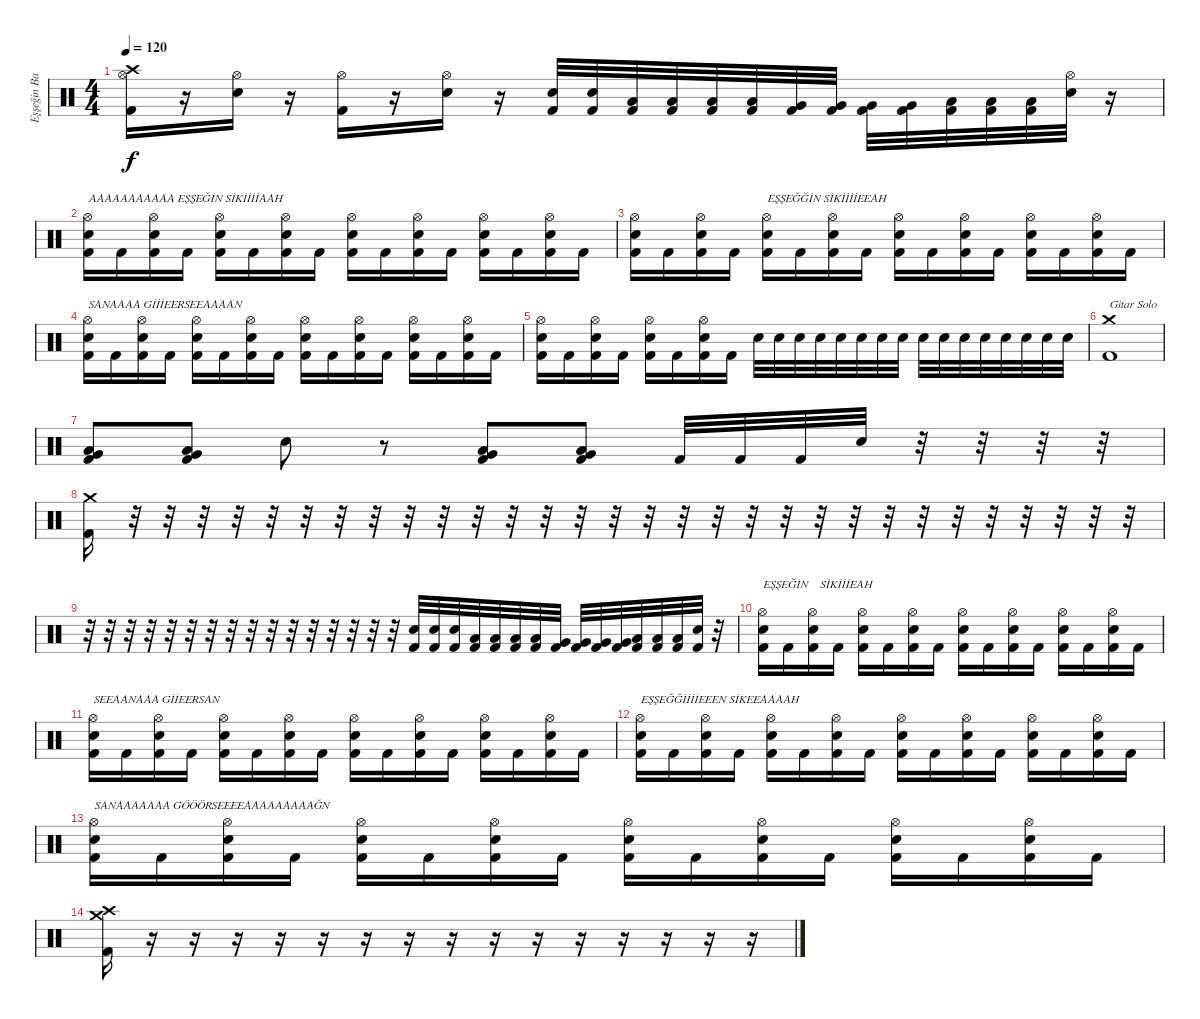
\track ("Eşşeğin Baterisi" "Eşşeğin Ba") {instrument percussion}
\staff {score}
\articulation defaults
\ts (4 4)
\tempo 120
\clef neutral
\ks c
("Crash high (hit)" "Hi-Hat (open)" "Kick (hit) 2").16{dy f} r.16 ("Hi-Hat (open)" "Electric Snare (hit)").16 r.16 ("Hi-Hat (open)" "Kick (hit) 2").16 r.16 ("Hi-Hat (open)" "Electric Snare (hit)").16 r.16 ("Electric Snare (hit)" "Kick (hit) 2").32 ("Electric Snare (hit)" "Kick (hit) 2").32 ("Low Tom (hit)" "Kick (hit) 2").32 ("Low Tom (hit)" "Kick (hit) 2").32 ("Low Tom (hit)" "Kick (hit) 2").32 ("Low Tom (hit)" "Kick (hit) 2").32 ("Very Low Tom (hit)" "Kick (hit) 2").32 ("Very Low Tom (hit)" "Kick (hit) 2").32 ("Very Low Tom (hit)" "Kick (hit) 2").32 ("Very Low Tom (hit)" "Kick (hit) 2").32 ("Low Floor Tom (hit)" "Kick (hit) 2").32 ("Low Floor Tom (hit)" "Kick (hit) 2").32 ("Low Floor Tom (hit)" "Kick (hit) 2").32 ("Electric Snare (hit)" "Hi-Hat (open)").32 r.16 |
("Hi-Hat (open)" "Electric Snare (hit)" "Kick (hit) 2").16{txt "AAAAAAAAAAA EŞŞEĞİN SİKİİİİAAH"} "Kick (hit) 2".16 ("Hi-Hat (open)" "Electric Snare (hit)" "Kick (hit) 2").16 "Kick (hit) 2".16 ("Hi-Hat (open)" "Electric Snare (hit)" "Kick (hit) 2").16 "Kick (hit) 2".16 ("Hi-Hat (open)" "Electric Snare (hit)" "Kick (hit) 2").16 "Kick (hit) 2".16 ("Hi-Hat (open)" "Electric Snare (hit)" "Kick (hit) 2").16 "Kick (hit) 2".16 ("Hi-Hat (open)" "Electric Snare (hit)" "Kick (hit) 2").16 "Kick (hit) 2".16 ("Hi-Hat (open)" "Electric Snare (hit)" "Kick (hit) 2").16 "Kick (hit) 2".16 ("Hi-Hat (open)" "Electric Snare (hit)" "Kick (hit) 2").16 "Kick (hit) 2".16 |
("Hi-Hat (open)" "Electric Snare (hit)" "Kick (hit) 2").16 "Kick (hit) 2".16 ("Hi-Hat (open)" "Electric Snare (hit)" "Kick (hit) 2").16 "Kick (hit) 2".16 ("Hi-Hat (open)" "Electric Snare (hit)" "Kick (hit) 2").16{txt "EŞŞEĞĞİN SİKİİİİEEAH"} "Kick (hit) 2".16 ("Hi-Hat (open)" "Electric Snare (hit)" "Kick (hit) 2").16 "Kick (hit) 2".16 ("Hi-Hat (open)" "Electric Snare (hit)" "Kick (hit) 2").16 "Kick (hit) 2".16 ("Hi-Hat (open)" "Electric Snare (hit)" "Kick (hit) 2").16 "Kick (hit) 2".16 ("Hi-Hat (open)" "Electric Snare (hit)" "Kick (hit) 2").16 "Kick (hit) 2".16 ("Hi-Hat (open)" "Electric Snare (hit)" "Kick (hit) 2").16 "Kick (hit) 2".16 |
("Hi-Hat (open)" "Electric Snare (hit)" "Kick (hit) 2").16{txt "SANAAAA GİİİEERSEEAAAAN"} "Kick (hit) 2".16 ("Hi-Hat (open)" "Electric Snare (hit)" "Kick (hit) 2").16 "Kick (hit) 2".16 ("Hi-Hat (open)" "Electric Snare (hit)" "Kick (hit) 2").16 "Kick (hit) 2".16 ("Hi-Hat (open)" "Electric Snare (hit)" "Kick (hit) 2").16 "Kick (hit) 2".16 ("Hi-Hat (open)" "Electric Snare (hit)" "Kick (hit) 2").16 "Kick (hit) 2".16 ("Hi-Hat (open)" "Electric Snare (hit)" "Kick (hit) 2").16 "Kick (hit) 2".16 ("Hi-Hat (open)" "Electric Snare (hit)" "Kick (hit) 2").16 "Kick (hit) 2".16 ("Hi-Hat (open)" "Electric Snare (hit)" "Kick (hit) 2").16 "Kick (hit) 2".16 |
("Hi-Hat (open)" "Electric Snare (hit)" "Kick (hit) 2").16 "Kick (hit) 2".16 ("Hi-Hat (open)" "Electric Snare (hit)" "Kick (hit) 2").16 "Kick (hit) 2".16 ("Hi-Hat (open)" "Electric Snare (hit)" "Kick (hit) 2").16 "Kick (hit) 2".16 ("Hi-Hat (open)" "Electric Snare (hit)" "Kick (hit) 2").16 "Kick (hit) 2".16 "Electric Snare (hit)".32 "Electric Snare (hit)".32 "Electric Snare (hit)".32 "Electric Snare (hit)".32 "Electric Snare (hit)".32 "Electric Snare (hit)".32 "Electric Snare (hit)".32 "Electric Snare (hit)".32 "Electric Snare (hit)".32 "Electric Snare (hit)".32 "Electric Snare (hit)".32 "Electric Snare (hit)".32 "Electric Snare (hit)".32 "Electric Snare (hit)".32 "Electric Snare (hit)".32 "Electric Snare (hit)".32 |
("Crash medium (hit)" "Kick (hit) 2").1{txt "Gitar Solo"} |
("Low Floor Tom (hit)" "Very Low Tom (hit)" "Kick (hit) 2").8 ("Low Floor Tom (hit)" "Very Low Tom (hit)" "Kick (hit) 2").8 "Electric Snare (hit)".8 r.8 ("Low Floor Tom (hit)" "Very Low Tom (hit)" "Kick (hit) 2").8 ("Low Floor Tom (hit)" "Very Low Tom (hit)" "Kick (hit) 2").8 "Kick (hit) 2".32 "Kick (hit) 2".32 "Kick (hit) 2".32 "Electric Snare (hit)".32 r.32 r.32 r.32 r.32 |
("Crash medium (hit)" "Kick (hit) 2").16 r.32 r.32 r.32 r.32 r.32 r.32 r.32 r.32 r.32 r.32 r.32 r.32 r.32 r.32 r.32 r.32 r.32 r.32 r.32 r.32 r.32 r.32 r.32 r.32 r.32 r.32 r.32 r.32 r.32 r.32 |
r.32 r.32 r.32 r.32 r.32 r.32 r.32 r.32 r.32 r.32 r.32 r.32 r.32 r.32 r.32 r.32 ("Electric Snare (hit)" "Kick (hit) 2").32 ("Electric Snare (hit)" "Kick (hit) 2").32 ("Electric Snare (hit)" "Kick (hit) 2").32 ("Low Tom (hit)" "Kick (hit) 2").32 ("Low Tom (hit)" "Kick (hit) 2").32 ("Low Tom (hit)" "Kick (hit) 2").32 ("Low Tom (hit)" "Kick (hit) 2").32 ("Very Low Tom (hit)" "Kick (hit) 2").32 ("Very Low Tom (hit)" "Kick (hit) 2").32 ("Very Low Tom (hit)" "Kick (hit) 2").32 ("Very Low Tom (hit)" "Kick (hit) 2").32 ("Low Floor Tom (hit)" "Kick (hit) 2").32 ("Low Floor Tom (hit)" "Kick (hit) 2").32 ("Low Floor Tom (hit)" "Kick (hit) 2").32 ("Electric Snare (hit)" "Kick (hit) 2").32 r.32 |
("Hi-Hat (open)" "Electric Snare (hit)" "Kick (hit) 2").16{txt "EŞŞEĞİN    SİKİİİEAH"} "Kick (hit) 2".16 ("Hi-Hat (open)" "Electric Snare (hit)" "Kick (hit) 2").16 "Kick (hit) 2".16 ("Hi-Hat (open)" "Electric Snare (hit)" "Kick (hit) 2").16 "Kick (hit) 2".16 ("Hi-Hat (open)" "Electric Snare (hit)" "Kick (hit) 2").16 "Kick (hit) 2".16 ("Hi-Hat (open)" "Electric Snare (hit)" "Kick (hit) 2").16 "Kick (hit) 2".16 ("Hi-Hat (open)" "Electric Snare (hit)" "Kick (hit) 2").16 "Kick (hit) 2".16 ("Hi-Hat (open)" "Electric Snare (hit)" "Kick (hit) 2").16 "Kick (hit) 2".16 ("Hi-Hat (open)" "Electric Snare (hit)" "Kick (hit) 2").16 "Kick (hit) 2".16 |
("Hi-Hat (open)" "Electric Snare (hit)" "Kick (hit) 2").16{txt "SEEAANAAA GİİEERSAN"} "Kick (hit) 2".16 ("Hi-Hat (open)" "Electric Snare (hit)" "Kick (hit) 2").16 "Kick (hit) 2".16 ("Hi-Hat (open)" "Electric Snare (hit)" "Kick (hit) 2").16 "Kick (hit) 2".16 ("Hi-Hat (open)" "Electric Snare (hit)" "Kick (hit) 2").16 "Kick (hit) 2".16 ("Hi-Hat (open)" "Electric Snare (hit)" "Kick (hit) 2").16 "Kick (hit) 2".16 ("Hi-Hat (open)" "Electric Snare (hit)" "Kick (hit) 2").16 "Kick (hit) 2".16 ("Hi-Hat (open)" "Electric Snare (hit)" "Kick (hit) 2").16 "Kick (hit) 2".16 ("Hi-Hat (open)" "Electric Snare (hit)" "Kick (hit) 2").16 "Kick (hit) 2".16 |
("Hi-Hat (open)" "Electric Snare (hit)" "Kick (hit) 2").16{txt "EŞŞEĞĞİİİİEEEN SİKEEAAAAH"} "Kick (hit) 2".16 ("Hi-Hat (open)" "Electric Snare (hit)" "Kick (hit) 2").16 "Kick (hit) 2".16 ("Hi-Hat (open)" "Electric Snare (hit)" "Kick (hit) 2").16 "Kick (hit) 2".16 ("Hi-Hat (open)" "Electric Snare (hit)" "Kick (hit) 2").16 "Kick (hit) 2".16 ("Hi-Hat (open)" "Electric Snare (hit)" "Kick (hit) 2").16 "Kick (hit) 2".16 ("Hi-Hat (open)" "Electric Snare (hit)" "Kick (hit) 2").16 "Kick (hit) 2".16 ("Hi-Hat (open)" "Electric Snare (hit)" "Kick (hit) 2").16 "Kick (hit) 2".16 ("Hi-Hat (open)" "Electric Snare (hit)" "Kick (hit) 2").16 "Kick (hit) 2".16 |
("Hi-Hat (open)" "Electric Snare (hit)" "Kick (hit) 2").16{txt "SANAAAAAAA GÖÖÖRSEEEEAAAAAAAAAĞN"} "Kick (hit) 2".16 ("Hi-Hat (open)" "Electric Snare (hit)" "Kick (hit) 2").16 "Kick (hit) 2".16 ("Hi-Hat (open)" "Electric Snare (hit)" "Kick (hit) 2").16 "Kick (hit) 2".16 ("Hi-Hat (open)" "Electric Snare (hit)" "Kick (hit) 2").16 "Kick (hit) 2".16 ("Hi-Hat (open)" "Electric Snare (hit)" "Kick (hit) 2").16 "Kick (hit) 2".16 ("Hi-Hat (open)" "Electric Snare (hit)" "Kick (hit) 2").16 "Kick (hit) 2".16 ("Hi-Hat (open)" "Electric Snare (hit)" "Kick (hit) 2").16 "Kick (hit) 2".16 ("Hi-Hat (open)" "Electric Snare (hit)" "Kick (hit) 2").16 "Kick (hit) 2".16 |
("Crash high (hit)" "Crash medium (hit)" "Kick (hit) 2").16 r.16 r.16 r.16 r.16 r.16 r.16 r.16 r.16 r.16 r.16 r.16 r.16 r.16 r.16 r.16
